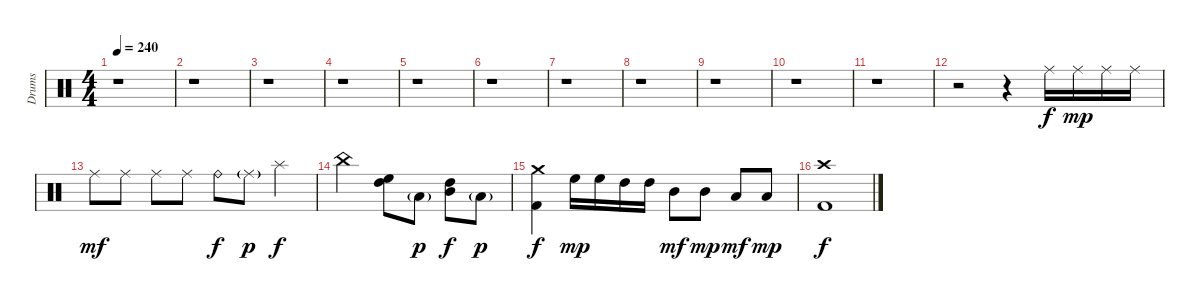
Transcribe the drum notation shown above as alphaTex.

\track ("Drums" "Drums") {instrument percussion}
\staff {score}
\articulation defaults
\ts (4 4)
\tempo 240
\clef neutral
\ks c
r.1{dy f} |
r.1 |
r.1 |
r.1 |
r.1 |
r.1 |
r.1 |
r.1 |
r.1 |
r.1 |
r.1 |
r.2{volume 14} r.4 "Ride (middle)".16 "Ride (middle)".16{dy mp} "Ride (middle)".16 "Ride (middle)".16 |
"Ride (middle)".8{dy mf} "Ride (middle)".8 "Ride (middle)".8 "Ride (middle)".8 "Ride (bell)".8{dy f} "Ride (middle)"{g}.8{dy p} "Splash (hit)".4{dy f} |
"China (hit)".2 ("High Floor Tom (hit)" "High Tom (hit)").8 "Low Tom (hit)"{g}.8{dy p} ("High Tom (hit)" "Mid Tom (hit)").8{dy f} "Low Tom (hit)"{g}.8{dy p} |
("Crash medium (hit)" "Kick (hit) 2").4{dy f} "High Floor Tom (hit)".16{dy mp} "High Floor Tom (hit)".16 "High Tom (hit)".16 "High Tom (hit)".16 "Mid Tom (hit)".8{dy mf} "Mid Tom (hit)".8{dy mp} "Low Tom (hit)".8{dy mf} "Low Tom (hit)".8{dy mp} |
("Crash high (hit)" "Kick (hit) 2").1{dy f}
